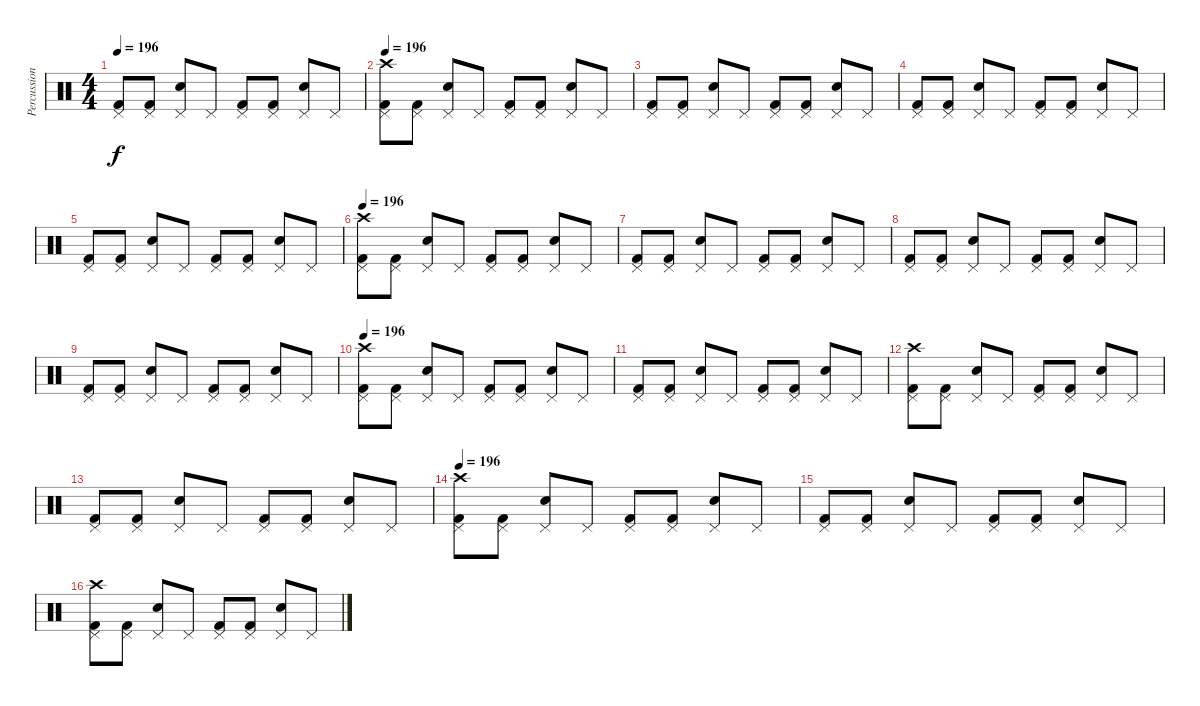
\track ("Percussion" "Percussion") {instrument percussion}
\staff {score}
\articulation defaults
\ts (4 4)
\tempo 196
\clef neutral
\ks c
("Pedal Hi-Hat (hit)" "Kick (hit) 2").8{dy f} ("Pedal Hi-Hat (hit)" "Kick (hit) 2").8 ("Pedal Hi-Hat (hit)" "Snare (hit) 2").8 "Pedal Hi-Hat (hit)".8 ("Pedal Hi-Hat (hit)" "Kick (hit) 2").8 ("Pedal Hi-Hat (hit)" "Kick (hit) 2").8 ("Pedal Hi-Hat (hit)" "Snare (hit) 2").8 "Pedal Hi-Hat (hit)".8 |
\tempo 196
("Pedal Hi-Hat (hit)" "Kick (hit) 2" "Crash high (hit)").8 ("Pedal Hi-Hat (hit)" "Kick (hit) 2").8 ("Pedal Hi-Hat (hit)" "Snare (hit) 2").8 "Pedal Hi-Hat (hit)".8 ("Pedal Hi-Hat (hit)" "Kick (hit) 2").8 ("Pedal Hi-Hat (hit)" "Kick (hit) 2").8 ("Pedal Hi-Hat (hit)" "Snare (hit) 2").8 "Pedal Hi-Hat (hit)".8 |
("Pedal Hi-Hat (hit)" "Kick (hit) 2").8 ("Pedal Hi-Hat (hit)" "Kick (hit) 2").8 ("Pedal Hi-Hat (hit)" "Snare (hit) 2").8 "Pedal Hi-Hat (hit)".8 ("Pedal Hi-Hat (hit)" "Kick (hit) 2").8 ("Pedal Hi-Hat (hit)" "Kick (hit) 2").8 ("Pedal Hi-Hat (hit)" "Snare (hit) 2").8 "Pedal Hi-Hat (hit)".8 |
("Pedal Hi-Hat (hit)" "Kick (hit) 2").8 ("Pedal Hi-Hat (hit)" "Kick (hit) 2").8 ("Pedal Hi-Hat (hit)" "Snare (hit) 2").8 "Pedal Hi-Hat (hit)".8 ("Pedal Hi-Hat (hit)" "Kick (hit) 2").8 ("Pedal Hi-Hat (hit)" "Kick (hit) 2").8 ("Pedal Hi-Hat (hit)" "Snare (hit) 2").8 "Pedal Hi-Hat (hit)".8 |
("Pedal Hi-Hat (hit)" "Kick (hit) 2").8 ("Pedal Hi-Hat (hit)" "Kick (hit) 2").8 ("Pedal Hi-Hat (hit)" "Snare (hit) 2").8 "Pedal Hi-Hat (hit)".8 ("Pedal Hi-Hat (hit)" "Kick (hit) 2").8 ("Pedal Hi-Hat (hit)" "Kick (hit) 2").8 ("Pedal Hi-Hat (hit)" "Snare (hit) 2").8 "Pedal Hi-Hat (hit)".8 |
\tempo 196
("Pedal Hi-Hat (hit)" "Kick (hit) 2" "Crash high (hit)").8 ("Pedal Hi-Hat (hit)" "Kick (hit) 2").8 ("Pedal Hi-Hat (hit)" "Snare (hit) 2").8 "Pedal Hi-Hat (hit)".8 ("Pedal Hi-Hat (hit)" "Kick (hit) 2").8 ("Pedal Hi-Hat (hit)" "Kick (hit) 2").8 ("Pedal Hi-Hat (hit)" "Snare (hit) 2").8 "Pedal Hi-Hat (hit)".8 |
("Pedal Hi-Hat (hit)" "Kick (hit) 2").8 ("Pedal Hi-Hat (hit)" "Kick (hit) 2").8 ("Pedal Hi-Hat (hit)" "Snare (hit) 2").8 "Pedal Hi-Hat (hit)".8 ("Pedal Hi-Hat (hit)" "Kick (hit) 2").8 ("Pedal Hi-Hat (hit)" "Kick (hit) 2").8 ("Pedal Hi-Hat (hit)" "Snare (hit) 2").8 "Pedal Hi-Hat (hit)".8 |
("Pedal Hi-Hat (hit)" "Kick (hit) 2").8 ("Pedal Hi-Hat (hit)" "Kick (hit) 2").8 ("Pedal Hi-Hat (hit)" "Snare (hit) 2").8 "Pedal Hi-Hat (hit)".8 ("Pedal Hi-Hat (hit)" "Kick (hit) 2").8 ("Pedal Hi-Hat (hit)" "Kick (hit) 2").8 ("Pedal Hi-Hat (hit)" "Snare (hit) 2").8 "Pedal Hi-Hat (hit)".8 |
("Pedal Hi-Hat (hit)" "Kick (hit) 2").8 ("Pedal Hi-Hat (hit)" "Kick (hit) 2").8 ("Pedal Hi-Hat (hit)" "Snare (hit) 2").8 "Pedal Hi-Hat (hit)".8 ("Pedal Hi-Hat (hit)" "Kick (hit) 2").8 ("Pedal Hi-Hat (hit)" "Kick (hit) 2").8 ("Pedal Hi-Hat (hit)" "Snare (hit) 2").8 "Pedal Hi-Hat (hit)".8 |
\tempo 196
("Pedal Hi-Hat (hit)" "Kick (hit) 2" "Crash high (hit)").8 ("Pedal Hi-Hat (hit)" "Kick (hit) 2").8 ("Pedal Hi-Hat (hit)" "Snare (hit) 2").8 "Pedal Hi-Hat (hit)".8 ("Pedal Hi-Hat (hit)" "Kick (hit) 2").8 ("Pedal Hi-Hat (hit)" "Kick (hit) 2").8 ("Pedal Hi-Hat (hit)" "Snare (hit) 2").8 "Pedal Hi-Hat (hit)".8 |
("Pedal Hi-Hat (hit)" "Kick (hit) 2").8 ("Pedal Hi-Hat (hit)" "Kick (hit) 2").8 ("Pedal Hi-Hat (hit)" "Snare (hit) 2").8 "Pedal Hi-Hat (hit)".8 ("Pedal Hi-Hat (hit)" "Kick (hit) 2").8 ("Pedal Hi-Hat (hit)" "Kick (hit) 2").8 ("Pedal Hi-Hat (hit)" "Snare (hit) 2").8 "Pedal Hi-Hat (hit)".8 |
("Pedal Hi-Hat (hit)" "Kick (hit) 2" "Crash high (hit)").8 ("Pedal Hi-Hat (hit)" "Kick (hit) 2").8 ("Pedal Hi-Hat (hit)" "Snare (hit) 2").8 "Pedal Hi-Hat (hit)".8 ("Pedal Hi-Hat (hit)" "Kick (hit) 2").8 ("Pedal Hi-Hat (hit)" "Kick (hit) 2").8 ("Pedal Hi-Hat (hit)" "Snare (hit) 2").8 "Pedal Hi-Hat (hit)".8 |
("Pedal Hi-Hat (hit)" "Kick (hit) 2").8 ("Pedal Hi-Hat (hit)" "Kick (hit) 2").8 ("Pedal Hi-Hat (hit)" "Snare (hit) 2").8 "Pedal Hi-Hat (hit)".8 ("Pedal Hi-Hat (hit)" "Kick (hit) 2").8 ("Pedal Hi-Hat (hit)" "Kick (hit) 2").8 ("Pedal Hi-Hat (hit)" "Snare (hit) 2").8 "Pedal Hi-Hat (hit)".8 |
\tempo 196
("Pedal Hi-Hat (hit)" "Kick (hit) 2" "Crash high (hit)").8 ("Pedal Hi-Hat (hit)" "Kick (hit) 2").8 ("Pedal Hi-Hat (hit)" "Snare (hit) 2").8 "Pedal Hi-Hat (hit)".8 ("Pedal Hi-Hat (hit)" "Kick (hit) 2").8 ("Pedal Hi-Hat (hit)" "Kick (hit) 2").8 ("Pedal Hi-Hat (hit)" "Snare (hit) 2").8 "Pedal Hi-Hat (hit)".8 |
("Pedal Hi-Hat (hit)" "Kick (hit) 2").8 ("Pedal Hi-Hat (hit)" "Kick (hit) 2").8 ("Pedal Hi-Hat (hit)" "Snare (hit) 2").8 "Pedal Hi-Hat (hit)".8 ("Pedal Hi-Hat (hit)" "Kick (hit) 2").8 ("Pedal Hi-Hat (hit)" "Kick (hit) 2").8 ("Pedal Hi-Hat (hit)" "Snare (hit) 2").8 "Pedal Hi-Hat (hit)".8 |
("Pedal Hi-Hat (hit)" "Kick (hit) 2" "Crash high (hit)").8 ("Pedal Hi-Hat (hit)" "Kick (hit) 2").8 ("Pedal Hi-Hat (hit)" "Snare (hit) 2").8 "Pedal Hi-Hat (hit)".8 ("Pedal Hi-Hat (hit)" "Kick (hit) 2").8 ("Pedal Hi-Hat (hit)" "Kick (hit) 2").8 ("Pedal Hi-Hat (hit)" "Snare (hit) 2").8 "Pedal Hi-Hat (hit)".8
